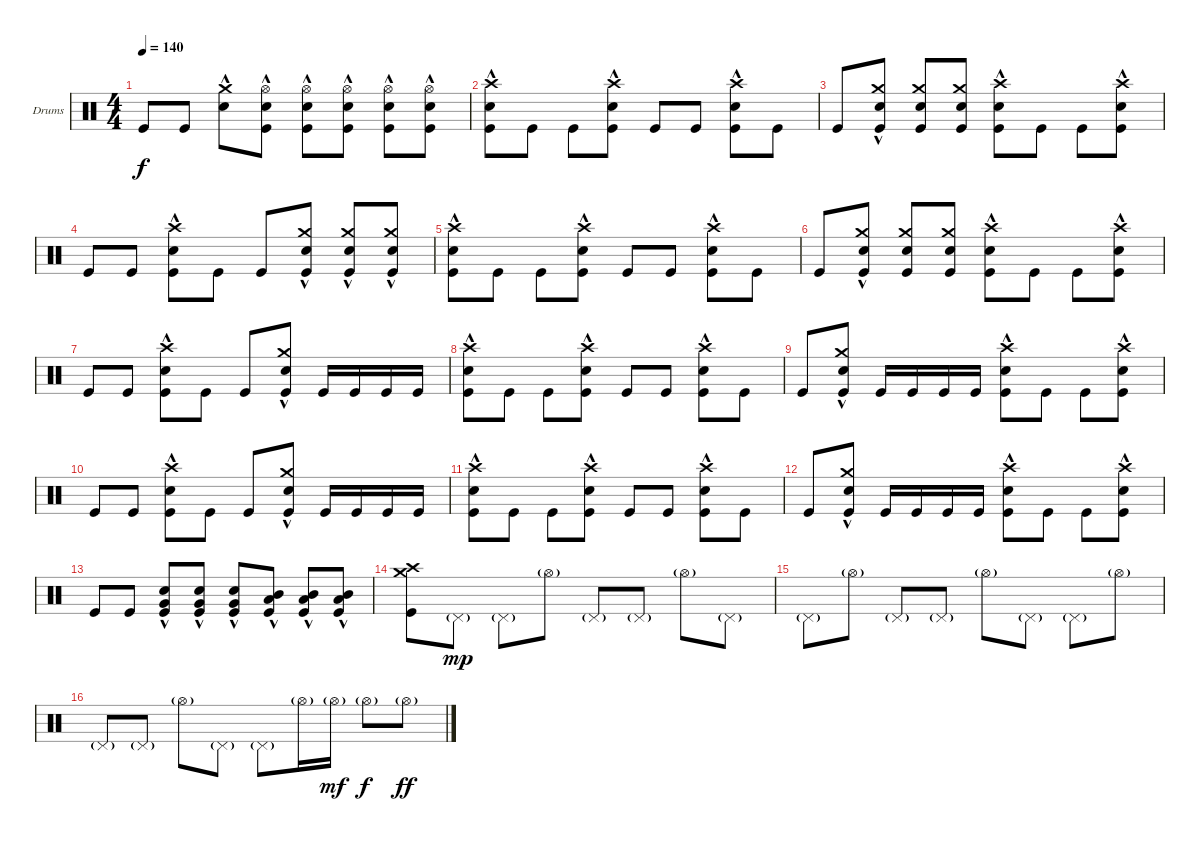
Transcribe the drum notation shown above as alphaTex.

\bracketExtendMode groupsimilarinstruments
\firstSystemTrackNameOrientation horizontal
\otherSystemsTrackNameOrientation horizontal
\track ("Drumkit (Christoph)" "Drums") {instrument percussion}
\staff {score}
\articulation defaults
\ts (4 4)
\tempo 140
\clef neutral
\ks c "Kick (hit)".8{dy f} "Kick (hit)".8
("Crash medium (hit)" "Snare (hit) 2"{hac}).8 ("Hi-Hat (open)" "Kick (hit)" "Snare (hit) 2"{hac}).8 ("Hi-Hat (open)" "Kick (hit)" "Snare (hit) 2"{hac}).8 ("Hi-Hat (open)" "Kick (hit)" "Snare (hit) 2"{hac}).8 ("Hi-Hat (open)" "Kick (hit)" "Snare (hit) 2"{hac}).8 ("Hi-Hat (open)" "Kick (hit)" "Snare (hit) 2"{hac}).8 |
("Crash high (hit)" "Kick (hit)" "Snare (hit) 2"{hac}).8 "Kick (hit)".8 "Kick (hit)".8 ("Crash high (hit)" "Kick (hit)" "Snare (hit) 2"{hac}).8 "Kick (hit)".8 "Kick (hit)".8 ("Crash high (hit)" "Kick (hit)" "Snare (hit) 2"{hac}).8 "Kick (hit)".8 |
"Kick (hit)".8 ("Crash medium (hit)" "Kick (hit)" "Snare (hit) 2"{hac}).8 ("Crash medium (hit)" "Kick (hit)" "Snare (hit) 2").8 ("Crash medium (hit)" "Kick (hit)" "Snare (hit) 2").8 ("Crash high (hit)" "Kick (hit)" "Snare (hit) 2"{hac}).8 "Kick (hit)".8 "Kick (hit)".8 ("Crash high (hit)" "Kick (hit)" "Snare (hit) 2"{hac}).8 |
"Kick (hit)".8 "Kick (hit)".8 ("Crash high (hit)" "Kick (hit)" "Snare (hit) 2"{hac}).8 "Kick (hit)".8 "Kick (hit)".8 ("Crash medium (hit)" "Kick (hit)" "Snare (hit) 2"{hac}).8 ("Crash medium (hit)" "Kick (hit)" "Snare (hit) 2"{hac}).8 ("Crash medium (hit)" "Kick (hit)" "Snare (hit) 2"{hac}).8 |
("Crash high (hit)" "Kick (hit)" "Snare (hit) 2"{hac}).8 "Kick (hit)".8 "Kick (hit)".8 ("Crash high (hit)" "Kick (hit)" "Snare (hit) 2"{hac}).8 "Kick (hit)".8 "Kick (hit)".8 ("Crash high (hit)" "Kick (hit)" "Snare (hit) 2"{hac}).8 "Kick (hit)".8 |
"Kick (hit)".8 ("Crash medium (hit)" "Kick (hit)" "Snare (hit) 2"{hac}).8 ("Crash medium (hit)" "Kick (hit)" "Snare (hit) 2").8 ("Crash medium (hit)" "Kick (hit)" "Snare (hit) 2").8 ("Crash high (hit)" "Kick (hit)" "Snare (hit) 2"{hac}).8 "Kick (hit)".8 "Kick (hit)".8 ("Crash high (hit)" "Kick (hit)" "Snare (hit) 2"{hac}).8 |
"Kick (hit)".8 "Kick (hit)".8 ("Crash high (hit)" "Kick (hit)" "Snare (hit) 2"{hac}).8 "Kick (hit)".8 "Kick (hit)".8 ("Crash medium (hit)" "Kick (hit)" "Snare (hit) 2"{hac}).8 "Kick (hit)".16 "Kick (hit)".16 "Kick (hit)".16 "Kick (hit)".16 |
("Crash high (hit)" "Kick (hit)" "Snare (hit) 2"{hac}).8 "Kick (hit)".8 "Kick (hit)".8 ("Crash high (hit)" "Kick (hit)" "Snare (hit) 2"{hac}).8 "Kick (hit)".8 "Kick (hit)".8 ("Crash high (hit)" "Kick (hit)" "Snare (hit) 2"{hac}).8 "Kick (hit)".8 |
"Kick (hit)".8 ("Crash medium (hit)" "Kick (hit)" "Snare (hit) 2"{hac}).8 "Kick (hit)".16 "Kick (hit)".16 "Kick (hit)".16 "Kick (hit)".16 ("Crash high (hit)" "Kick (hit)" "Snare (hit) 2"{hac}).8 "Kick (hit)".8 "Kick (hit)".8 ("Crash high (hit)" "Kick (hit)" "Snare (hit) 2"{hac}).8 |
"Kick (hit)".8 "Kick (hit)".8 ("Crash high (hit)" "Kick (hit)" "Snare (hit) 2"{hac}).8 "Kick (hit)".8 "Kick (hit)".8 ("Crash medium (hit)" "Kick (hit)" "Snare (hit) 2"{hac}).8 "Kick (hit)".16 "Kick (hit)".16 "Kick (hit)".16 "Kick (hit)".16 |
("Crash high (hit)" "Kick (hit)" "Snare (hit) 2"{hac}).8 "Kick (hit)".8 "Kick (hit)".8 ("Crash high (hit)" "Kick (hit)" "Snare (hit) 2"{hac}).8 "Kick (hit)".8 "Kick (hit)".8 ("Crash high (hit)" "Kick (hit)" "Snare (hit) 2"{hac}).8 "Kick (hit)".8 |
"Kick (hit)".8 ("Crash medium (hit)" "Kick (hit)" "Snare (hit) 2"{hac}).8 "Kick (hit)".16 "Kick (hit)".16 "Kick (hit)".16 "Kick (hit)".16 ("Crash high (hit)" "Kick (hit)" "Snare (hit) 2"{hac}).8 "Kick (hit)".8 "Kick (hit)".8 ("Crash high (hit)" "Kick (hit)" "Snare (hit) 2"{hac}).8 |
"Kick (hit)".8 "Kick (hit)".8 ("Kick (hit)" "Snare (hit) 2"{hac} "Very Low Tom (hit)"{hac}).8 ("Kick (hit)" "Snare (hit) 2"{hac} "Very Low Tom (hit)"{hac}).8 ("Kick (hit)" "Snare (hit) 2"{hac} "Very Low Tom (hit)"{hac}).8 ("Kick (hit)" "Mid Tom (hit)"{hac} "Low Tom (hit)"{hac}).8 ("Kick (hit)" "Mid Tom (hit)"{hac} "Low Tom (hit)"{hac}).8 ("Kick (hit)" "Mid Tom (hit)"{hac} "Low Tom (hit)"{hac}).8 |
("Crash medium (hit)" "Kick (hit)" "Crash high (hit)").8 "Pedal Hi-Hat (hit)"{g}.8{dy mp} "Pedal Hi-Hat (hit)"{g}.8 "Hi-Hat (open)"{g}.8 "Pedal Hi-Hat (hit)"{g}.8 "Pedal Hi-Hat (hit)"{g}.8 "Hi-Hat (open)"{g}.8 "Pedal Hi-Hat (hit)"{g}.8 |
"Pedal Hi-Hat (hit)"{g}.8 "Hi-Hat (open)"{g}.8 "Pedal Hi-Hat (hit)"{g}.8 "Pedal Hi-Hat (hit)"{g}.8 "Hi-Hat (open)"{g}.8 "Pedal Hi-Hat (hit)"{g}.8 "Pedal Hi-Hat (hit)"{g}.8 "Hi-Hat (open)"{g}.8 |
"Pedal Hi-Hat (hit)"{g}.8 "Pedal Hi-Hat (hit)"{g}.8 "Hi-Hat (open)"{g}.8 "Pedal Hi-Hat (hit)"{g}.8 "Pedal Hi-Hat (hit)"{g}.8 "Hi-Hat (open)"{g}.16 "Hi-Hat (open)"{g}.16{dy mf} "Hi-Hat (open)"{g}.8{dy f} "Hi-Hat (open)"{g}.8{dy ff}
